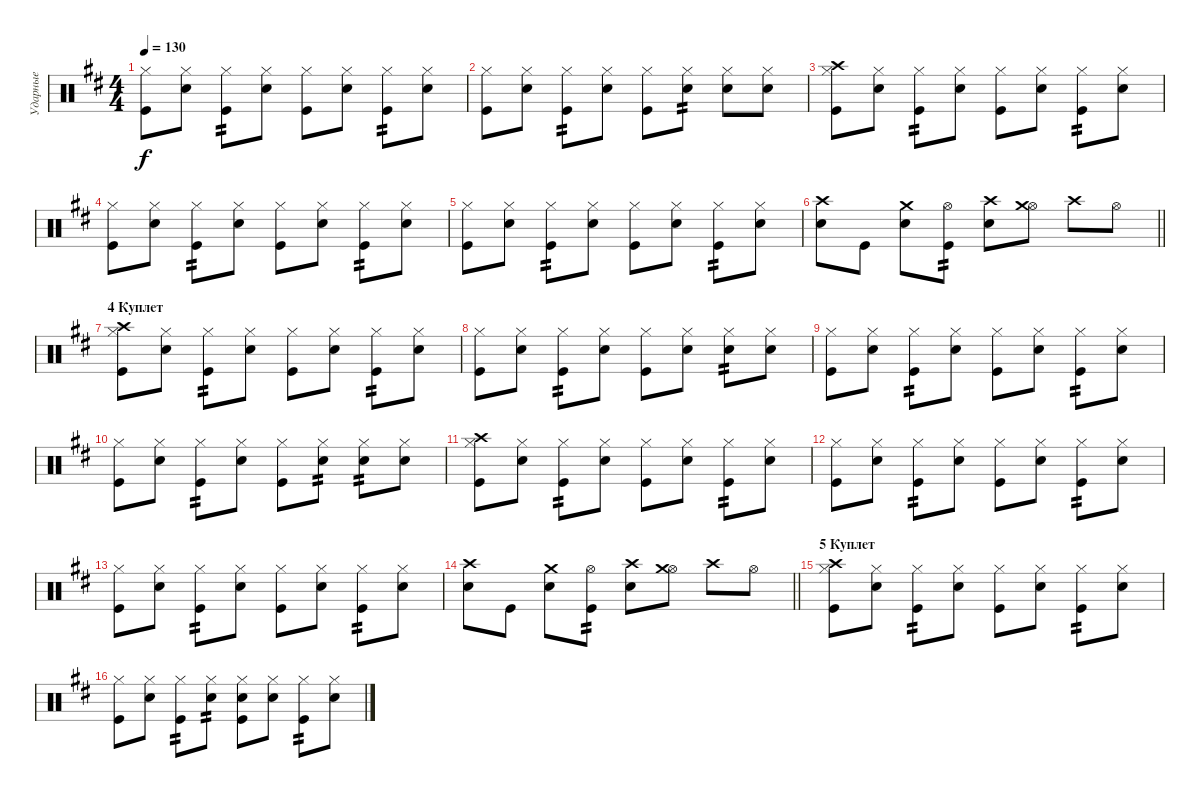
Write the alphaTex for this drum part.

\track ("Ударные" "Ударные") {instrument percussion}
\staff {score}
\articulation defaults
\ts (4 4)
\tempo 130
\clef neutral
\ks bminor
("Hi-Hat (closed)" "Kick (hit)").8{dy f} ("Hi-Hat (closed)" "Electric Snare (hit)").8 ("Hi-Hat (closed)" "Kick (hit)").8{tp 2} ("Hi-Hat (closed)" "Electric Snare (hit)").8 ("Hi-Hat (closed)" "Kick (hit)").8 ("Hi-Hat (closed)" "Electric Snare (hit)").8 ("Hi-Hat (closed)" "Kick (hit)").8{tp 2} ("Hi-Hat (closed)" "Electric Snare (hit)").8 |
("Hi-Hat (closed)" "Kick (hit)").8 ("Hi-Hat (closed)" "Electric Snare (hit)").8 ("Hi-Hat (closed)" "Kick (hit)").8{tp 2} ("Hi-Hat (closed)" "Electric Snare (hit)").8 ("Hi-Hat (closed)" "Kick (hit)").8 ("Hi-Hat (closed)" "Electric Snare (hit)").8{tp 2} ("Hi-Hat (closed)" "Electric Snare (hit)").8 ("Hi-Hat (closed)" "Electric Snare (hit)").8 |
("Hi-Hat (closed)" "Crash high (hit)" "Kick (hit)").8 ("Hi-Hat (closed)" "Electric Snare (hit)").8 ("Hi-Hat (closed)" "Kick (hit)").8{tp 2} ("Hi-Hat (closed)" "Electric Snare (hit)").8 ("Hi-Hat (closed)" "Kick (hit)").8 ("Hi-Hat (closed)" "Electric Snare (hit)").8 ("Hi-Hat (closed)" "Kick (hit)").8{tp 2} ("Hi-Hat (closed)" "Electric Snare (hit)").8 |
("Hi-Hat (closed)" "Kick (hit)").8 ("Hi-Hat (closed)" "Electric Snare (hit)").8 ("Hi-Hat (closed)" "Kick (hit)").8{tp 2} ("Hi-Hat (closed)" "Electric Snare (hit)").8 ("Hi-Hat (closed)" "Kick (hit)").8 ("Hi-Hat (closed)" "Electric Snare (hit)").8 ("Hi-Hat (closed)" "Kick (hit)").8{tp 2} ("Hi-Hat (closed)" "Electric Snare (hit)").8 |
("Hi-Hat (closed)" "Kick (hit)").8 ("Hi-Hat (closed)" "Electric Snare (hit)").8 ("Hi-Hat (closed)" "Kick (hit)").8{tp 2} ("Hi-Hat (closed)" "Electric Snare (hit)").8 ("Hi-Hat (closed)" "Kick (hit)").8 ("Hi-Hat (closed)" "Electric Snare (hit)").8 ("Hi-Hat (closed)" "Kick (hit)").8{tp 2} ("Hi-Hat (closed)" "Electric Snare (hit)").8 |
\barLineRight lightlight
("Crash high (hit)" "Electric Snare (hit)").8 "Kick (hit)".8 ("Crash medium (hit)" "Electric Snare (hit)").8 ("Hi-Hat (open)" "Kick (hit)").8{tp 2} ("Crash high (hit)" "Electric Snare (hit)").8 ("Hi-Hat (open)" "Crash medium (hit)").8 "Crash high (hit)".8 "Hi-Hat (open)".8 |
\section ("" "4 Куплет")
("Hi-Hat (closed)" "Crash high (hit)" "Kick (hit)").8 ("Hi-Hat (closed)" "Electric Snare (hit)").8 ("Hi-Hat (closed)" "Kick (hit)").8{tp 2} ("Hi-Hat (closed)" "Electric Snare (hit)").8 ("Hi-Hat (closed)" "Kick (hit)").8 ("Hi-Hat (closed)" "Electric Snare (hit)").8 ("Hi-Hat (closed)" "Kick (hit)").8{tp 2} ("Hi-Hat (closed)" "Electric Snare (hit)").8 |
("Hi-Hat (closed)" "Kick (hit)").8 ("Hi-Hat (closed)" "Electric Snare (hit)").8 ("Hi-Hat (closed)" "Kick (hit)").8{tp 2} ("Hi-Hat (closed)" "Electric Snare (hit)").8 ("Hi-Hat (closed)" "Kick (hit)").8 ("Hi-Hat (closed)" "Electric Snare (hit)").8 ("Hi-Hat (closed)" "Electric Snare (hit)").8{tp 2} ("Hi-Hat (closed)" "Electric Snare (hit)").8 |
("Hi-Hat (closed)" "Kick (hit)").8 ("Hi-Hat (closed)" "Electric Snare (hit)").8 ("Hi-Hat (closed)" "Kick (hit)").8{tp 2} ("Hi-Hat (closed)" "Electric Snare (hit)").8 ("Hi-Hat (closed)" "Kick (hit)").8 ("Hi-Hat (closed)" "Electric Snare (hit)").8 ("Hi-Hat (closed)" "Kick (hit)").8{tp 2} ("Hi-Hat (closed)" "Electric Snare (hit)").8 |
("Hi-Hat (closed)" "Kick (hit)").8 ("Hi-Hat (closed)" "Electric Snare (hit)").8 ("Hi-Hat (closed)" "Kick (hit)").8{tp 2} ("Hi-Hat (closed)" "Electric Snare (hit)").8 ("Hi-Hat (closed)" "Kick (hit)").8 ("Hi-Hat (closed)" "Electric Snare (hit)").8{tp 2} ("Hi-Hat (closed)" "Electric Snare (hit)").8{tp 2} ("Hi-Hat (closed)" "Electric Snare (hit)").8 |
("Hi-Hat (closed)" "Crash high (hit)" "Kick (hit)").8 ("Hi-Hat (closed)" "Electric Snare (hit)").8 ("Hi-Hat (closed)" "Kick (hit)").8{tp 2} ("Hi-Hat (closed)" "Electric Snare (hit)").8 ("Hi-Hat (closed)" "Kick (hit)").8 ("Hi-Hat (closed)" "Electric Snare (hit)").8 ("Hi-Hat (closed)" "Kick (hit)").8{tp 2} ("Hi-Hat (closed)" "Electric Snare (hit)").8 |
("Hi-Hat (closed)" "Kick (hit)").8 ("Hi-Hat (closed)" "Electric Snare (hit)").8 ("Hi-Hat (closed)" "Kick (hit)").8{tp 2} ("Hi-Hat (closed)" "Electric Snare (hit)").8 ("Hi-Hat (closed)" "Kick (hit)").8 ("Hi-Hat (closed)" "Electric Snare (hit)").8 ("Hi-Hat (closed)" "Kick (hit)").8{tp 2} ("Hi-Hat (closed)" "Electric Snare (hit)").8 |
("Hi-Hat (closed)" "Kick (hit)").8 ("Hi-Hat (closed)" "Electric Snare (hit)").8 ("Hi-Hat (closed)" "Kick (hit)").8{tp 2} ("Hi-Hat (closed)" "Electric Snare (hit)").8 ("Hi-Hat (closed)" "Kick (hit)").8 ("Hi-Hat (closed)" "Electric Snare (hit)").8 ("Hi-Hat (closed)" "Kick (hit)").8{tp 2} ("Hi-Hat (closed)" "Electric Snare (hit)").8 |
\barLineRight lightlight
("Crash high (hit)" "Electric Snare (hit)").8 "Kick (hit)".8 ("Crash medium (hit)" "Electric Snare (hit)").8 ("Hi-Hat (open)" "Kick (hit)").8{tp 2} ("Crash high (hit)" "Electric Snare (hit)").8 ("Hi-Hat (open)" "Crash medium (hit)").8 "Crash high (hit)".8 "Hi-Hat (open)".8 |
\section ("" "5 Куплет")
("Hi-Hat (closed)" "Crash high (hit)" "Kick (hit)").8 ("Hi-Hat (closed)" "Electric Snare (hit)").8 ("Hi-Hat (closed)" "Kick (hit)").8{tp 2} ("Hi-Hat (closed)" "Electric Snare (hit)").8 ("Hi-Hat (closed)" "Kick (hit)").8 ("Hi-Hat (closed)" "Electric Snare (hit)").8 ("Hi-Hat (closed)" "Kick (hit)").8{tp 2} ("Hi-Hat (closed)" "Electric Snare (hit)").8 |
("Hi-Hat (closed)" "Kick (hit)").8 ("Hi-Hat (closed)" "Electric Snare (hit)").8 ("Hi-Hat (closed)" "Kick (hit)").8{tp 2} ("Hi-Hat (closed)" "Electric Snare (hit)").8{tp 2} ("Hi-Hat (closed)" "Electric Snare (hit)" "Kick (hit)").8 ("Hi-Hat (closed)" "Electric Snare (hit)").8 ("Hi-Hat (closed)" "Kick (hit)").8{tp 2} ("Hi-Hat (closed)" "Electric Snare (hit)").8
